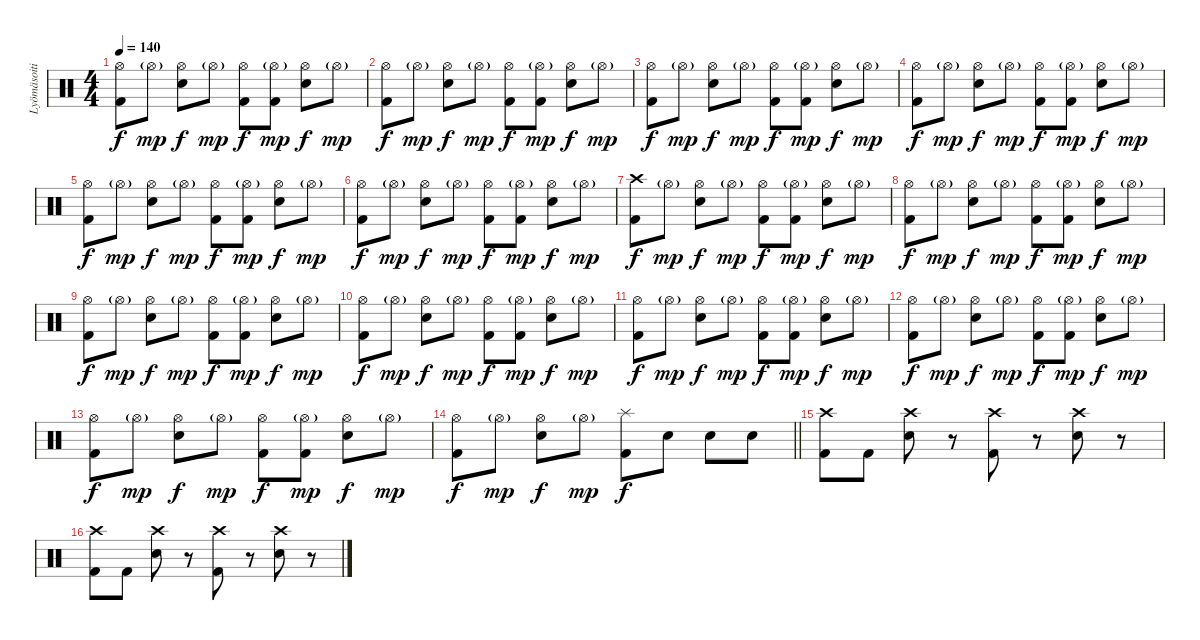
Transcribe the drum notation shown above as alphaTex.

\track ("Lyömäsoitin" "Lyömäsoiti") {instrument percussion}
\staff {score}
\articulation defaults
\ts (4 4)
\tempo 140
\clef neutral
\ks c
("Hi-Hat (open)" "Kick (hit) 2").8{dy f} "Hi-Hat (open)"{g}.8{dy mp} ("Hi-Hat (open)" "Electric Snare (hit)").8{dy f} "Hi-Hat (open)"{g}.8{dy mp} ("Hi-Hat (open)" "Kick (hit) 2").8{dy f} ("Hi-Hat (open)"{g} "Kick (hit) 2").8{dy mp} ("Hi-Hat (open)" "Electric Snare (hit)").8{dy f} "Hi-Hat (open)"{g}.8{dy mp} |
("Hi-Hat (open)" "Kick (hit) 2").8{dy f} "Hi-Hat (open)"{g}.8{dy mp} ("Hi-Hat (open)" "Electric Snare (hit)").8{dy f} "Hi-Hat (open)"{g}.8{dy mp} ("Hi-Hat (open)" "Kick (hit) 2").8{dy f} ("Hi-Hat (open)"{g} "Kick (hit) 2").8{dy mp} ("Hi-Hat (open)" "Electric Snare (hit)").8{dy f} "Hi-Hat (open)"{g}.8{dy mp} |
("Hi-Hat (open)" "Kick (hit) 2").8{dy f} "Hi-Hat (open)"{g}.8{dy mp} ("Hi-Hat (open)" "Electric Snare (hit)").8{dy f} "Hi-Hat (open)"{g}.8{dy mp} ("Hi-Hat (open)" "Kick (hit) 2").8{dy f} ("Hi-Hat (open)"{g} "Kick (hit) 2").8{dy mp} ("Hi-Hat (open)" "Electric Snare (hit)").8{dy f} "Hi-Hat (open)"{g}.8{dy mp} |
("Hi-Hat (open)" "Kick (hit) 2").8{dy f} "Hi-Hat (open)"{g}.8{dy mp} ("Hi-Hat (open)" "Electric Snare (hit)").8{dy f} "Hi-Hat (open)"{g}.8{dy mp} ("Hi-Hat (open)" "Kick (hit) 2").8{dy f} ("Hi-Hat (open)"{g} "Kick (hit) 2").8{dy mp} ("Hi-Hat (open)" "Electric Snare (hit)").8{dy f} "Hi-Hat (open)"{g}.8{dy mp} |
("Hi-Hat (open)" "Kick (hit) 2").8{dy f} "Hi-Hat (open)"{g}.8{dy mp} ("Hi-Hat (open)" "Electric Snare (hit)").8{dy f} "Hi-Hat (open)"{g}.8{dy mp} ("Hi-Hat (open)" "Kick (hit) 2").8{dy f} ("Hi-Hat (open)"{g} "Kick (hit) 2").8{dy mp} ("Hi-Hat (open)" "Electric Snare (hit)").8{dy f} "Hi-Hat (open)"{g}.8{dy mp} |
("Hi-Hat (open)" "Kick (hit) 2").8{dy f} "Hi-Hat (open)"{g}.8{dy mp} ("Hi-Hat (open)" "Electric Snare (hit)").8{dy f} "Hi-Hat (open)"{g}.8{dy mp} ("Hi-Hat (open)" "Kick (hit) 2").8{dy f} ("Hi-Hat (open)"{g} "Kick (hit) 2").8{dy mp} ("Hi-Hat (open)" "Electric Snare (hit)").8{dy f} "Hi-Hat (open)"{g}.8{dy mp} |
("Crash high (hit)" "Kick (hit) 2").8{dy f} "Hi-Hat (open)"{g}.8{dy mp} ("Hi-Hat (open)" "Electric Snare (hit)").8{dy f} "Hi-Hat (open)"{g}.8{dy mp} ("Hi-Hat (open)" "Kick (hit) 2").8{dy f} ("Hi-Hat (open)"{g} "Kick (hit) 2").8{dy mp} ("Hi-Hat (open)" "Electric Snare (hit)").8{dy f} "Hi-Hat (open)"{g}.8{dy mp} |
("Hi-Hat (open)" "Kick (hit) 2").8{dy f} "Hi-Hat (open)"{g}.8{dy mp} ("Hi-Hat (open)" "Electric Snare (hit)").8{dy f} "Hi-Hat (open)"{g}.8{dy mp} ("Hi-Hat (open)" "Kick (hit) 2").8{dy f} ("Hi-Hat (open)"{g} "Kick (hit) 2").8{dy mp} ("Hi-Hat (open)" "Electric Snare (hit)").8{dy f} "Hi-Hat (open)"{g}.8{dy mp} |
("Hi-Hat (open)" "Kick (hit) 2").8{dy f} "Hi-Hat (open)"{g}.8{dy mp} ("Hi-Hat (open)" "Electric Snare (hit)").8{dy f} "Hi-Hat (open)"{g}.8{dy mp} ("Hi-Hat (open)" "Kick (hit) 2").8{dy f} ("Hi-Hat (open)"{g} "Kick (hit) 2").8{dy mp} ("Hi-Hat (open)" "Electric Snare (hit)").8{dy f} "Hi-Hat (open)"{g}.8{dy mp} |
("Hi-Hat (open)" "Kick (hit) 2").8{dy f} "Hi-Hat (open)"{g}.8{dy mp} ("Hi-Hat (open)" "Electric Snare (hit)").8{dy f} "Hi-Hat (open)"{g}.8{dy mp} ("Hi-Hat (open)" "Kick (hit) 2").8{dy f} ("Hi-Hat (open)"{g} "Kick (hit) 2").8{dy mp} ("Hi-Hat (open)" "Electric Snare (hit)").8{dy f} "Hi-Hat (open)"{g}.8{dy mp} |
("Hi-Hat (open)" "Kick (hit) 2").8{dy f} "Hi-Hat (open)"{g}.8{dy mp} ("Hi-Hat (open)" "Electric Snare (hit)").8{dy f} "Hi-Hat (open)"{g}.8{dy mp} ("Hi-Hat (open)" "Kick (hit) 2").8{dy f} ("Hi-Hat (open)"{g} "Kick (hit) 2").8{dy mp} ("Hi-Hat (open)" "Electric Snare (hit)").8{dy f} "Hi-Hat (open)"{g}.8{dy mp} |
("Hi-Hat (open)" "Kick (hit) 2").8{dy f} "Hi-Hat (open)"{g}.8{dy mp} ("Hi-Hat (open)" "Electric Snare (hit)").8{dy f} "Hi-Hat (open)"{g}.8{dy mp} ("Hi-Hat (open)" "Kick (hit) 2").8{dy f} ("Hi-Hat (open)"{g} "Kick (hit) 2").8{dy mp} ("Hi-Hat (open)" "Electric Snare (hit)").8{dy f} "Hi-Hat (open)"{g}.8{dy mp} |
("Hi-Hat (open)" "Kick (hit) 2").8{dy f} "Hi-Hat (open)"{g}.8{dy mp} ("Hi-Hat (open)" "Electric Snare (hit)").8{dy f} "Hi-Hat (open)"{g}.8{dy mp} ("Hi-Hat (open)" "Kick (hit) 2").8{dy f} ("Hi-Hat (open)"{g} "Kick (hit) 2").8{dy mp} ("Hi-Hat (open)" "Electric Snare (hit)").8{dy f} "Hi-Hat (open)"{g}.8{dy mp} |
\barLineRight lightlight
("Hi-Hat (open)" "Kick (hit) 2").8{dy f} "Hi-Hat (open)"{g}.8{dy mp} ("Hi-Hat (open)" "Electric Snare (hit)").8{dy f} "Hi-Hat (open)"{g}.8{dy mp} ("Splash (hit)" "Kick (hit) 2").8{dy f} "Electric Snare (hit)".8 "Electric Snare (hit)".8 "Electric Snare (hit)".8 |
("Crash high (hit)" "Kick (hit) 2").8 "Kick (hit) 2".8 ("Crash high (hit)" "Electric Snare (hit)").8 r.8 ("Crash high (hit)" "Kick (hit) 2").8 r.8 ("Crash high (hit)" "Electric Snare (hit)").8 r.8 |
("Crash high (hit)" "Kick (hit) 2").8 "Kick (hit) 2".8 ("Crash high (hit)" "Electric Snare (hit)").8 r.8 ("Crash high (hit)" "Kick (hit) 2").8 r.8 ("Crash high (hit)" "Electric Snare (hit)").8 r.8
